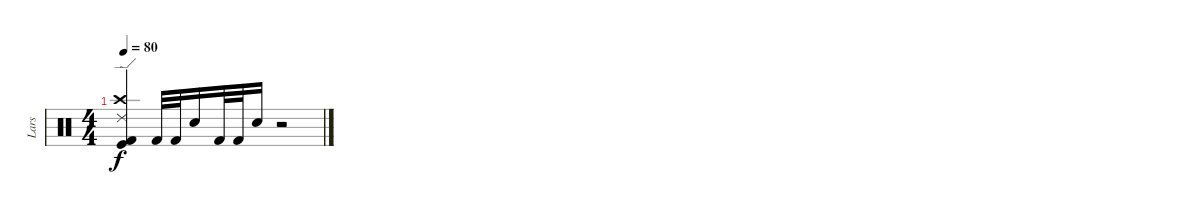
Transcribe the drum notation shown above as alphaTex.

\track ("Lars" "Lars") {instrument percussion}
\staff
\articulation defaults
\ts (4 4)
\tempo 80
\clef neutral
\ks c
("Kick (hit) 2" "Crash high (hit)" "Ride (edge) 2" "Kick (hit)").4{dy f} "Kick (hit) 2".32 "Kick (hit) 2".32 "Snare (hit) 2".16 "Kick (hit) 2".32 "Kick (hit) 2".32 "Snare (hit) 2".16 r.2
